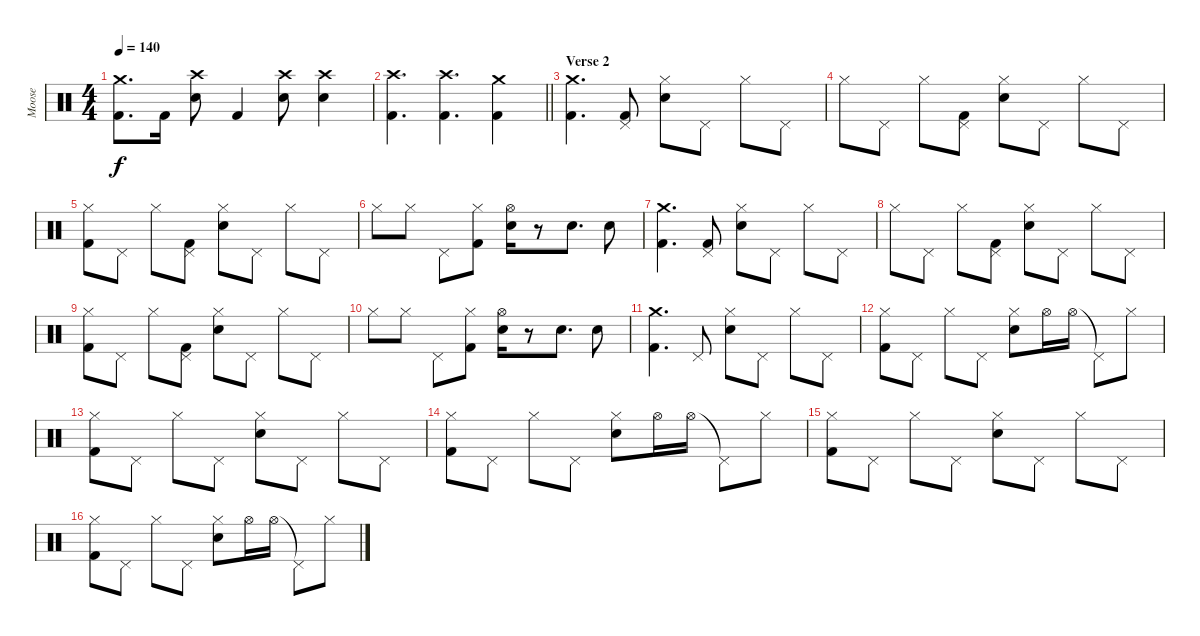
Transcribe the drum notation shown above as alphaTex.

\track ("Moose" "Moose") {instrument percussion}
\staff {score}
\articulation defaults
\ts (4 4)
\tempo 140
\clef neutral
\ks c
("Crash medium (hit)" "Kick (hit) 2").8{d dy f} "Kick (hit) 2".16 ("Crash high (hit)" "Snare (hit) 2").8 "Kick (hit) 2".4 ("Crash high (hit)" "Snare (hit) 2").8 ("Crash high (hit)" "Snare (hit) 2").4 |
\barLineRight lightlight
("Crash high (hit)" "Kick (hit) 2").4{d} ("Crash high (hit)" "Kick (hit) 2").4{d} ("Crash medium (hit)" "Kick (hit) 2").4 |
\section ("" "Verse 2")
("Crash medium (hit)" "Kick (hit) 2").4{d} ("Pedal Hi-Hat (hit)" "Kick (hit) 2").8 ("Hi-Hat (closed)" "Snare (hit) 2").8 "Pedal Hi-Hat (hit)".8 "Hi-Hat (closed)".8 "Pedal Hi-Hat (hit)".8 |
"Hi-Hat (closed)".8 "Pedal Hi-Hat (hit)".8 "Hi-Hat (closed)".8 ("Pedal Hi-Hat (hit)" "Kick (hit) 2").8 ("Hi-Hat (closed)" "Snare (hit) 2").8 "Pedal Hi-Hat (hit)".8 "Hi-Hat (closed)".8 "Pedal Hi-Hat (hit)".8 |
("Hi-Hat (closed)" "Kick (hit) 2").8 "Pedal Hi-Hat (hit)".8 "Hi-Hat (closed)".8 ("Pedal Hi-Hat (hit)" "Kick (hit) 2").8 ("Hi-Hat (closed)" "Snare (hit) 2").8 "Pedal Hi-Hat (hit)".8 "Hi-Hat (closed)".8 "Pedal Hi-Hat (hit)".8 |
"Hi-Hat (closed)".8 "Hi-Hat (closed)".8 "Pedal Hi-Hat (hit)".8 ("Hi-Hat (closed)" "Kick (hit) 2").8 ("Hi-Hat (open)" "Snare (hit) 2").16 r.8 "Snare (hit) 2".8{d} "Snare (hit) 2".8 |
("Crash medium (hit)" "Kick (hit) 2").4{d} ("Pedal Hi-Hat (hit)" "Kick (hit) 2").8 ("Hi-Hat (closed)" "Snare (hit) 2").8 "Pedal Hi-Hat (hit)".8 "Hi-Hat (closed)".8 "Pedal Hi-Hat (hit)".8 |
"Hi-Hat (closed)".8 "Pedal Hi-Hat (hit)".8 "Hi-Hat (closed)".8 ("Pedal Hi-Hat (hit)" "Kick (hit) 2").8 ("Hi-Hat (closed)" "Snare (hit) 2").8 "Pedal Hi-Hat (hit)".8 "Hi-Hat (closed)".8 "Pedal Hi-Hat (hit)".8 |
("Hi-Hat (closed)" "Kick (hit) 2").8 "Pedal Hi-Hat (hit)".8 "Hi-Hat (closed)".8 ("Pedal Hi-Hat (hit)" "Kick (hit) 2").8 ("Hi-Hat (closed)" "Snare (hit) 2").8 "Pedal Hi-Hat (hit)".8 "Hi-Hat (closed)".8 "Pedal Hi-Hat (hit)".8 |
"Hi-Hat (closed)".8 "Hi-Hat (closed)".8 "Pedal Hi-Hat (hit)".8 ("Hi-Hat (closed)" "Kick (hit) 2").8 ("Hi-Hat (open)" "Snare (hit) 2").16 r.8 "Snare (hit) 2".8{d} "Snare (hit) 2".8 |
("Crash medium (hit)" "Kick (hit) 2").4{d} "Pedal Hi-Hat (hit)".8 ("Hi-Hat (closed)" "Snare (hit) 2").8 "Pedal Hi-Hat (hit)".8 "Hi-Hat (closed)".8 "Pedal Hi-Hat (hit)".8 |
("Hi-Hat (closed)" "Kick (hit) 2").8 "Pedal Hi-Hat (hit)".8 "Hi-Hat (closed)".8 "Pedal Hi-Hat (hit)".8 ("Hi-Hat (closed)" "Snare (hit) 2").8 "Hi-Hat (open)".16 "Hi-Hat (open)".16 "Pedal Hi-Hat (hit)"{t}.8 "Hi-Hat (closed)".8 |
("Hi-Hat (closed)" "Kick (hit) 2").8 "Pedal Hi-Hat (hit)".8 "Hi-Hat (closed)".8 "Pedal Hi-Hat (hit)".8 ("Hi-Hat (closed)" "Snare (hit) 2").8 "Pedal Hi-Hat (hit)".8 "Hi-Hat (closed)".8 "Pedal Hi-Hat (hit)".8 |
("Hi-Hat (closed)" "Kick (hit) 2").8 "Pedal Hi-Hat (hit)".8 "Hi-Hat (closed)".8 "Pedal Hi-Hat (hit)".8 ("Hi-Hat (closed)" "Snare (hit) 2").8 "Hi-Hat (open)".16 "Hi-Hat (open)".16 "Pedal Hi-Hat (hit)"{t}.8 "Hi-Hat (closed)".8 |
("Hi-Hat (closed)" "Kick (hit) 2").8 "Pedal Hi-Hat (hit)".8 "Hi-Hat (closed)".8 "Pedal Hi-Hat (hit)".8 ("Hi-Hat (closed)" "Snare (hit) 2").8 "Pedal Hi-Hat (hit)".8 "Hi-Hat (closed)".8 "Pedal Hi-Hat (hit)".8 |
("Hi-Hat (closed)" "Kick (hit) 2").8 "Pedal Hi-Hat (hit)".8 "Hi-Hat (closed)".8 "Pedal Hi-Hat (hit)".8 ("Hi-Hat (closed)" "Snare (hit) 2").8 "Hi-Hat (open)".16 "Hi-Hat (open)".16 "Pedal Hi-Hat (hit)"{t}.8 "Hi-Hat (closed)".8
